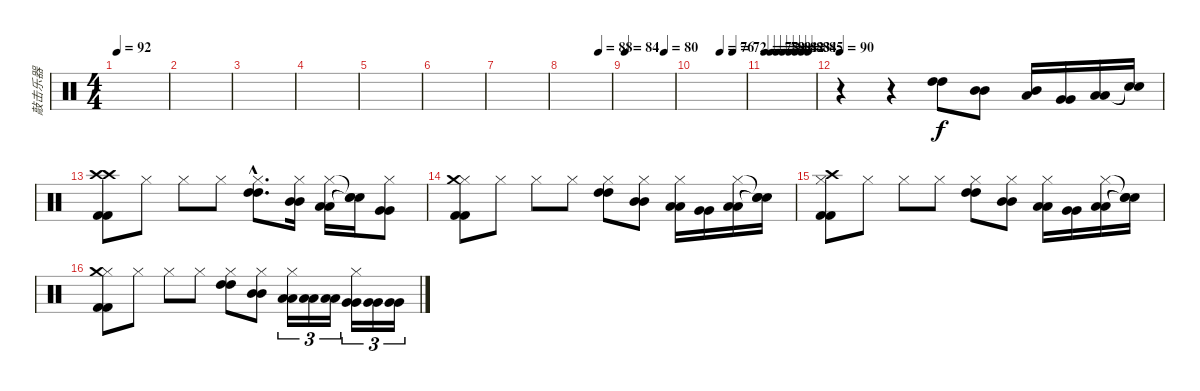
\track ("敲击乐器" "敲击乐器") {instrument percussion}
\staff {score}
\articulation defaults
\ts (4 4)
\tempo 92
\clef neutral
\ks c
|
|
|
|
|
|
|
\tempo (88 0.75)
|
\tempo 84
\tempo (80 0.796875)
|
\tempo (76 0.5)
\tempo (72 0.75)
|
\tempo 78
\tempo (79 0.125)
\tempo (80 0.25)
\tempo (81 0.375)
\tempo (82 0.5)
\tempo (83 0.625)
\tempo (84 0.75)
\tempo (85 0.875)
|
\tempo 90
r.4 r.4 ("High Tom (hit)" "High Tom (hit)").8 ("Mid Tom (hit)" "Mid Tom (hit)").8 ("Mid Tom (hit)" "Low Tom (hit)").16 ("Very Low Tom (hit)" "Very Low Tom (hit)").16 ("Low Floor Tom (hit)" "Low Floor Tom (hit)").16 ("Snare (hit)"{t} "Snare (hit)"{t}).16 |
("Crash high (hit)" "Crash high (hit)" "Kick (hit) 2" "Kick (hit) 2").8 "Hi-Hat (closed)".8 "Hi-Hat (closed)".8 "Hi-Hat (closed)".8 ("Hi-Hat (closed)"{hac} "High Tom (hit)"{hac} "High Tom (hit)"{hac}).8{d} ("Hi-Hat (closed)" "Mid Tom (hit)" "Mid Tom (hit)").16 ("Hi-Hat (closed)" "Low Tom (hit)" "Low Tom (hit)").16 ("Snare (hit)"{t} "Snare (hit)"{t} "Snare (hit)"{t}).16 ("Hi-Hat (closed)" "Very Low Tom (hit)" "Very Low Tom (hit)").8 |
("Hi-Hat (closed)" "Crash medium (hit)" "Kick (hit) 2" "Kick (hit) 2").8 "Hi-Hat (closed)".8 "Hi-Hat (closed)".8 "Hi-Hat (closed)".8 ("Hi-Hat (closed)" "High Tom (hit)" "High Tom (hit)").8 ("Hi-Hat (closed)" "Mid Tom (hit)" "Mid Tom (hit)").8 ("Hi-Hat (closed)" "Low Tom (hit)" "Low Tom (hit)").16 ("Very Low Tom (hit)" "Very Low Tom (hit)").16 ("Hi-Hat (closed)" "Low Floor Tom (hit)" "Low Floor Tom (hit)").16 ("Snare (hit)"{t} "Snare (hit)"{t} "Snare (hit)"{t}).16 |
("Hi-Hat (closed)" "Crash high (hit)" "Kick (hit) 2" "Kick (hit) 2").8 "Hi-Hat (closed)".8 "Hi-Hat (closed)".8 "Hi-Hat (closed)".8 ("Hi-Hat (closed)" "High Tom (hit)" "High Tom (hit)").8 ("Hi-Hat (closed)" "Mid Tom (hit)" "Mid Tom (hit)").8 ("Hi-Hat (closed)" "Low Tom (hit)" "Low Tom (hit)").16 ("Very Low Tom (hit)" "Very Low Tom (hit)").16 ("Hi-Hat (closed)" "Low Floor Tom (hit)" "Low Floor Tom (hit)").16 ("Snare (hit)"{t} "Snare (hit)"{t} "Snare (hit)"{t}).16 |
("Hi-Hat (closed)" "Crash medium (hit)" "Kick (hit) 2" "Kick (hit) 2").8 "Hi-Hat (closed)".8 "Hi-Hat (closed)".8 "Hi-Hat (closed)".8 ("Hi-Hat (closed)" "High Tom (hit)" "High Tom (hit)").8 ("Hi-Hat (closed)" "Mid Tom (hit)" "Mid Tom (hit)").8 ("Hi-Hat (closed)" "Low Tom (hit)" "Low Tom (hit)").16{tu (3 2)} ("Low Tom (hit)" "Low Tom (hit)").16{tu (3 2)} ("Low Tom (hit)" "Low Tom (hit)").16{tu (3 2)} ("Hi-Hat (closed)" "Very Low Tom (hit)" "Very Low Tom (hit)").16{tu (3 2)} ("Very Low Tom (hit)" "Very Low Tom (hit)").16{tu (3 2)} ("Very Low Tom (hit)" "Very Low Tom (hit)").16{tu (3 2)}
